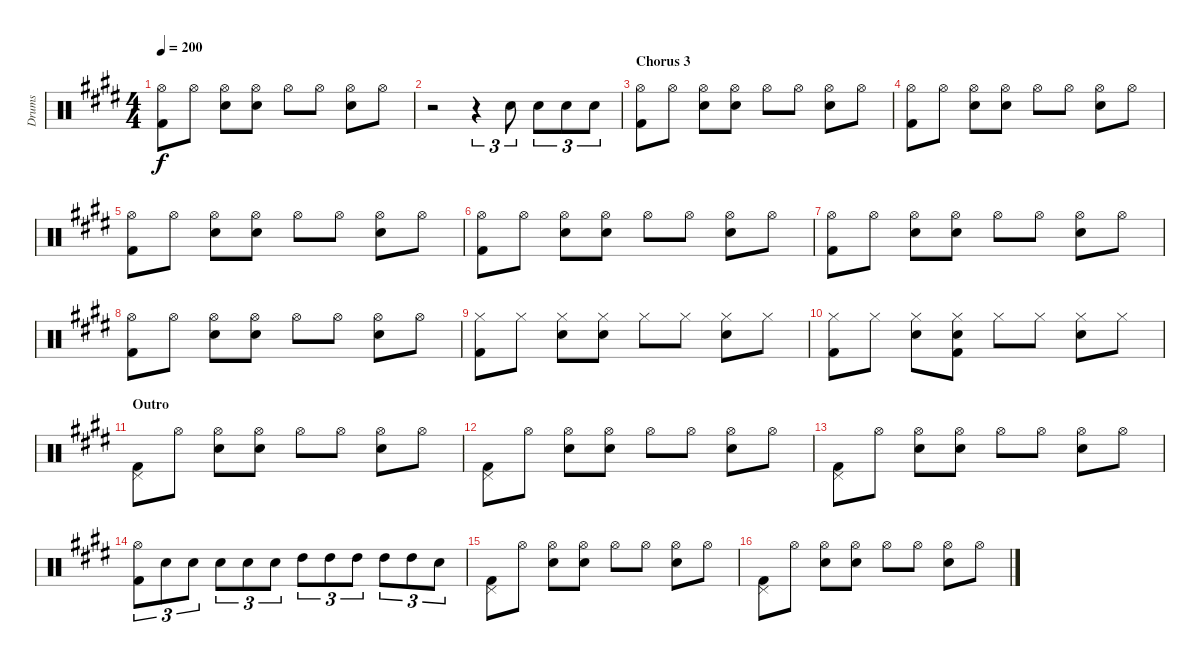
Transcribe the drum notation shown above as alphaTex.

\track ("Drums" "Drums") {instrument percussion}
\staff {score}
\articulation defaults
\ts (4 4)
\tempo 200
\clef neutral
\ks e
("Hi-Hat (open)" "Kick (hit) 2").8{dy f} "Hi-Hat (open)".8 ("Hi-Hat (open)" "Snare (hit) 2").8 ("Hi-Hat (open)" "Snare (hit) 2").8 "Hi-Hat (open)".8 "Hi-Hat (open)".8 ("Hi-Hat (open)" "Snare (hit) 2").8 "Hi-Hat (open)".8 |
r.2 r.4{tu (3 2)} "Snare (hit) 2".8{tu (3 2)} "Snare (hit) 2".8{tu (3 2)} "Snare (hit) 2".8{tu (3 2)} "Snare (hit) 2".8{tu (3 2)} |
\section ("" "Chorus 3")
("Hi-Hat (open)" "Kick (hit) 2").8 "Hi-Hat (open)".8 ("Hi-Hat (open)" "Snare (hit) 2").8 ("Hi-Hat (open)" "Snare (hit) 2").8 "Hi-Hat (open)".8 "Hi-Hat (open)".8 ("Hi-Hat (open)" "Snare (hit) 2").8 "Hi-Hat (open)".8 |
("Hi-Hat (open)" "Kick (hit) 2").8 "Hi-Hat (open)".8 ("Hi-Hat (open)" "Snare (hit) 2").8 ("Hi-Hat (open)" "Snare (hit) 2").8 "Hi-Hat (open)".8 "Hi-Hat (open)".8 ("Hi-Hat (open)" "Snare (hit) 2").8 "Hi-Hat (open)".8 |
("Hi-Hat (open)" "Kick (hit) 2").8 "Hi-Hat (open)".8 ("Hi-Hat (open)" "Snare (hit) 2").8 ("Hi-Hat (open)" "Snare (hit) 2").8 "Hi-Hat (open)".8 "Hi-Hat (open)".8 ("Hi-Hat (open)" "Snare (hit) 2").8 "Hi-Hat (open)".8 |
("Hi-Hat (open)" "Kick (hit) 2").8 "Hi-Hat (open)".8 ("Hi-Hat (open)" "Snare (hit) 2").8 ("Hi-Hat (open)" "Snare (hit) 2").8 "Hi-Hat (open)".8 "Hi-Hat (open)".8 ("Hi-Hat (open)" "Snare (hit) 2").8 "Hi-Hat (open)".8 |
("Hi-Hat (open)" "Kick (hit) 2").8 "Hi-Hat (open)".8 ("Hi-Hat (open)" "Snare (hit) 2").8 ("Hi-Hat (open)" "Snare (hit) 2").8 "Hi-Hat (open)".8 "Hi-Hat (open)".8 ("Hi-Hat (open)" "Snare (hit) 2").8 "Hi-Hat (open)".8 |
("Hi-Hat (open)" "Kick (hit) 2").8 "Hi-Hat (open)".8 ("Hi-Hat (open)" "Snare (hit) 2").8 ("Hi-Hat (open)" "Snare (hit) 2").8 "Hi-Hat (open)".8 "Hi-Hat (open)".8 ("Hi-Hat (open)" "Snare (hit) 2").8 "Hi-Hat (open)".8 |
("Hi-Hat (closed)" "Kick (hit) 2").8 "Hi-Hat (closed)".8 ("Hi-Hat (closed)" "Snare (hit) 2").8 ("Hi-Hat (closed)" "Snare (hit) 2").8 "Hi-Hat (closed)".8 "Hi-Hat (closed)".8 ("Hi-Hat (closed)" "Snare (hit) 2").8 "Hi-Hat (closed)".8 |
("Hi-Hat (closed)" "Kick (hit) 2").8 "Hi-Hat (closed)".8 ("Hi-Hat (closed)" "Snare (hit) 2").8 ("Hi-Hat (closed)" "Snare (hit) 2" "Kick (hit) 2").8 "Hi-Hat (closed)".8 "Hi-Hat (closed)".8 ("Hi-Hat (closed)" "Snare (hit) 2").8 "Hi-Hat (closed)".8 |
\section ("" "Outro")
("Pedal Hi-Hat (hit)" "Kick (hit) 2").8 "Hi-Hat (open)".8 ("Hi-Hat (open)" "Snare (hit) 2").8 ("Hi-Hat (open)" "Snare (hit) 2").8 "Hi-Hat (open)".8 "Hi-Hat (open)".8 ("Hi-Hat (open)" "Snare (hit) 2").8 "Hi-Hat (open)".8 |
("Pedal Hi-Hat (hit)" "Kick (hit) 2").8 "Hi-Hat (open)".8 ("Hi-Hat (open)" "Snare (hit) 2").8 ("Hi-Hat (open)" "Snare (hit) 2").8 "Hi-Hat (open)".8 "Hi-Hat (open)".8 ("Hi-Hat (open)" "Snare (hit) 2").8 "Hi-Hat (open)".8 |
("Pedal Hi-Hat (hit)" "Kick (hit) 2").8 "Hi-Hat (open)".8 ("Hi-Hat (open)" "Snare (hit) 2").8 ("Hi-Hat (open)" "Snare (hit) 2").8 "Hi-Hat (open)".8 "Hi-Hat (open)".8 ("Hi-Hat (open)" "Snare (hit) 2").8 "Hi-Hat (open)".8 |
("Hi-Hat (open)" "Kick (hit) 2").8{tu (3 2) volume 0} "Snare (hit) 2".8{tu (3 2)} "Snare (hit) 2".8{tu (3 2)} "Snare (hit) 2".8{tu (3 2)} "Snare (hit) 2".8{tu (3 2)} "Snare (hit) 2".8{tu (3 2)} "High Tom (hit)".8{tu (3 2)} "High Tom (hit)".8{tu (3 2)} "High Tom (hit)".8{tu (3 2)} "High Tom (hit)".8{tu (3 2)} "High Tom (hit)".8{tu (3 2)} "Snare (hit) 2".8{tu (3 2)} |
("Pedal Hi-Hat (hit)" "Kick (hit) 2").8 "Hi-Hat (open)".8 ("Hi-Hat (open)" "Snare (hit) 2").8 ("Hi-Hat (open)" "Snare (hit) 2").8 "Hi-Hat (open)".8 "Hi-Hat (open)".8 ("Hi-Hat (open)" "Snare (hit) 2").8 "Hi-Hat (open)".8 |
("Pedal Hi-Hat (hit)" "Kick (hit) 2").8 "Hi-Hat (open)".8 ("Hi-Hat (open)" "Snare (hit) 2").8 ("Hi-Hat (open)" "Snare (hit) 2").8 "Hi-Hat (open)".8 "Hi-Hat (open)".8 ("Hi-Hat (open)" "Snare (hit) 2").8 "Hi-Hat (open)".8
